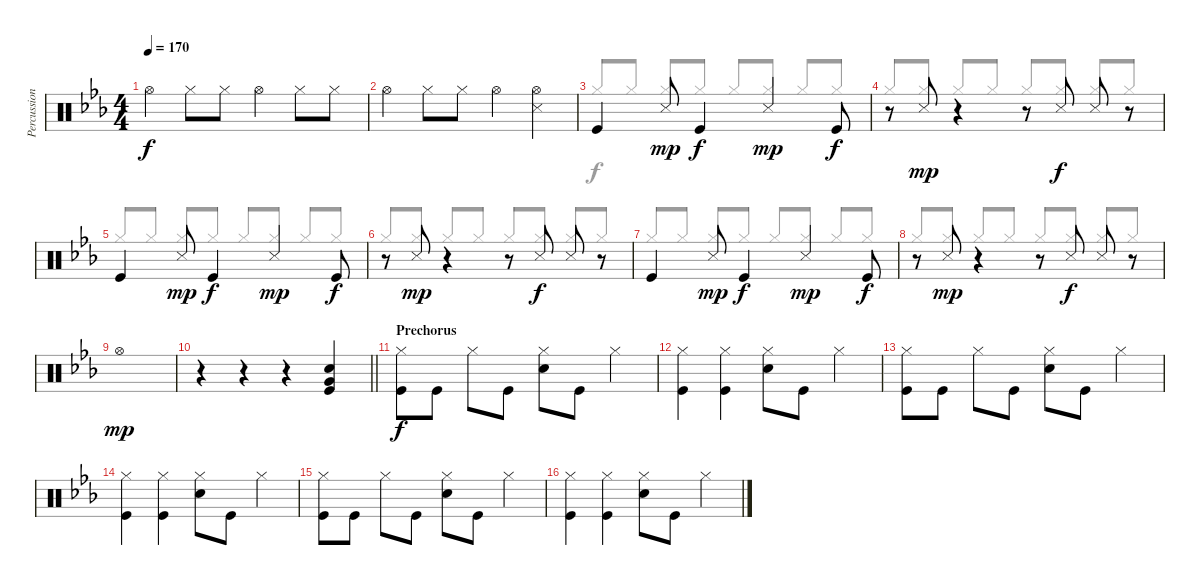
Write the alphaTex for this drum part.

\track ("Percussion" "Percussion") {instrument percussion}
\staff {score}
\articulation defaults
\voice
\ts (4 4)
\tempo 170
\clef neutral
\ks eb "Hi-Hat (open)".4{dy f} "Hi-Hat (closed)".8 "Hi-Hat (closed)".8 "Hi-Hat (open)".4 "Hi-Hat (closed)".8 "Hi-Hat (closed)".8
|
"Hi-Hat (open)".4 "Hi-Hat (closed)".8 "Hi-Hat (closed)".8 "Hi-Hat (open)".4 ("Hi-Hat (open)" "Snare (side stick) 3").4 |
"Kick (hit)".4 "Snare (side stick) 3".8{dy mp} "Kick (hit)".4{dy f} "Snare (side stick) 3".4{dy mp} "Kick (hit)".8{dy f} |
r.8 "Snare (side stick) 3".8{dy mp} r.4 r.8 "Snare (side stick) 3".8{dy f} "Snare (side stick) 3".8 r.8 |
"Kick (hit)".4 "Snare (side stick) 3".8{dy mp} "Kick (hit)".4{dy f} "Snare (side stick) 3".4{dy mp} "Kick (hit)".8{dy f} |
r.8 "Snare (side stick) 3".8{dy mp} r.4 r.8 "Snare (side stick) 3".8{dy f} "Snare (side stick) 3".8 r.8 |
"Kick (hit)".4 "Snare (side stick) 3".8{dy mp} "Kick (hit)".4{dy f} "Snare (side stick) 3".4{dy mp} "Kick (hit)".8{dy f} |
r.8 "Snare (side stick) 3".8{dy mp} r.4 r.8 "Snare (side stick) 3".8{dy f} "Snare (side stick) 3".8 r.8 |
"Hi-Hat (open)".1{dy mp} |
\barLineRight lightlight
r.4 r.4 r.4 ("Snare (hit) 2" "Very Low Tom (hit)" "Kick (hit)").4 |
\section ("" "Prechorus")
("Kick (hit)" "Hi-Hat (closed)").8{dy f} "Kick (hit)".8 "Hi-Hat (closed)".8 "Kick (hit)".8 ("Snare (hit) 2" "Hi-Hat (closed)").8 "Kick (hit)".8 "Hi-Hat (closed)".4 |
("Kick (hit)" "Hi-Hat (closed)").4 ("Kick (hit)" "Hi-Hat (closed)").4 ("Snare (hit) 2" "Hi-Hat (closed)").8 "Kick (hit)".8 "Hi-Hat (closed)".4 |
("Kick (hit)" "Hi-Hat (closed)").8 "Kick (hit)".8 "Hi-Hat (closed)".8 "Kick (hit)".8 ("Snare (hit) 2" "Hi-Hat (closed)").8 "Kick (hit)".8 "Hi-Hat (closed)".4 |
("Kick (hit)" "Hi-Hat (closed)").4 ("Kick (hit)" "Hi-Hat (closed)").4 ("Snare (hit) 2" "Hi-Hat (closed)").8 "Kick (hit)".8 "Hi-Hat (closed)".4 |
("Kick (hit)" "Hi-Hat (closed)").8 "Kick (hit)".8 "Hi-Hat (closed)".8 "Kick (hit)".8 ("Snare (hit) 2" "Hi-Hat (closed)").8 "Kick (hit)".8 "Hi-Hat (closed)".4 |
("Kick (hit)" "Hi-Hat (closed)").4 ("Kick (hit)" "Hi-Hat (closed)").4 ("Snare (hit) 2" "Hi-Hat (closed)").8 "Kick (hit)".8 "Hi-Hat (closed)".4
\voice
\clef neutral
\ottava regular
\simile none
\ks eb
|
|
"Hi-Hat (closed)".8{beam Up} "Hi-Hat (closed)".8{beam Up} "Hi-Hat (closed)".8{beam Up} "Hi-Hat (closed)".8{beam Up} "Hi-Hat (closed)".8{beam Up} "Hi-Hat (closed)".8{beam Up} "Hi-Hat (closed)".8{beam Up} "Hi-Hat (closed)".8{beam Up} |
"Hi-Hat (closed)".8{beam Up} "Hi-Hat (closed)".8{beam Up} "Hi-Hat (closed)".8{beam Up} "Hi-Hat (closed)".8{beam Up} "Hi-Hat (closed)".8{beam Up} "Hi-Hat (closed)".8{beam Up} "Hi-Hat (closed)".8{beam Up} "Hi-Hat (closed)".8{beam Up} |
"Hi-Hat (closed)".8{beam Up} "Hi-Hat (closed)".8{beam Up} "Hi-Hat (closed)".8{beam Up} "Hi-Hat (closed)".8{beam Up} "Hi-Hat (closed)".8{beam Up} "Hi-Hat (closed)".8{beam Up} "Hi-Hat (closed)".8{beam Up} "Hi-Hat (closed)".8{beam Up} |
"Hi-Hat (closed)".8{beam Up} "Hi-Hat (closed)".8{beam Up} "Hi-Hat (closed)".8{beam Up} "Hi-Hat (closed)".8{beam Up} "Hi-Hat (closed)".8{beam Up} "Hi-Hat (closed)".8{beam Up} "Hi-Hat (closed)".8{beam Up} "Hi-Hat (closed)".8{beam Up} |
"Hi-Hat (closed)".8{beam Up} "Hi-Hat (closed)".8{beam Up} "Hi-Hat (closed)".8{beam Up} "Hi-Hat (closed)".8{beam Up} "Hi-Hat (closed)".8{beam Up} "Hi-Hat (closed)".8{beam Up} "Hi-Hat (closed)".8{beam Up} "Hi-Hat (closed)".8{beam Up} |
"Hi-Hat (closed)".8{beam Up} "Hi-Hat (closed)".8{beam Up} "Hi-Hat (closed)".8{beam Up} "Hi-Hat (closed)".8{beam Up} "Hi-Hat (closed)".8{beam Up} "Hi-Hat (closed)".8{beam Up} "Hi-Hat (closed)".8{beam Up} "Hi-Hat (closed)".8{beam Up} |
|
\barLineRight lightlight
|
|
|
|
|
|
